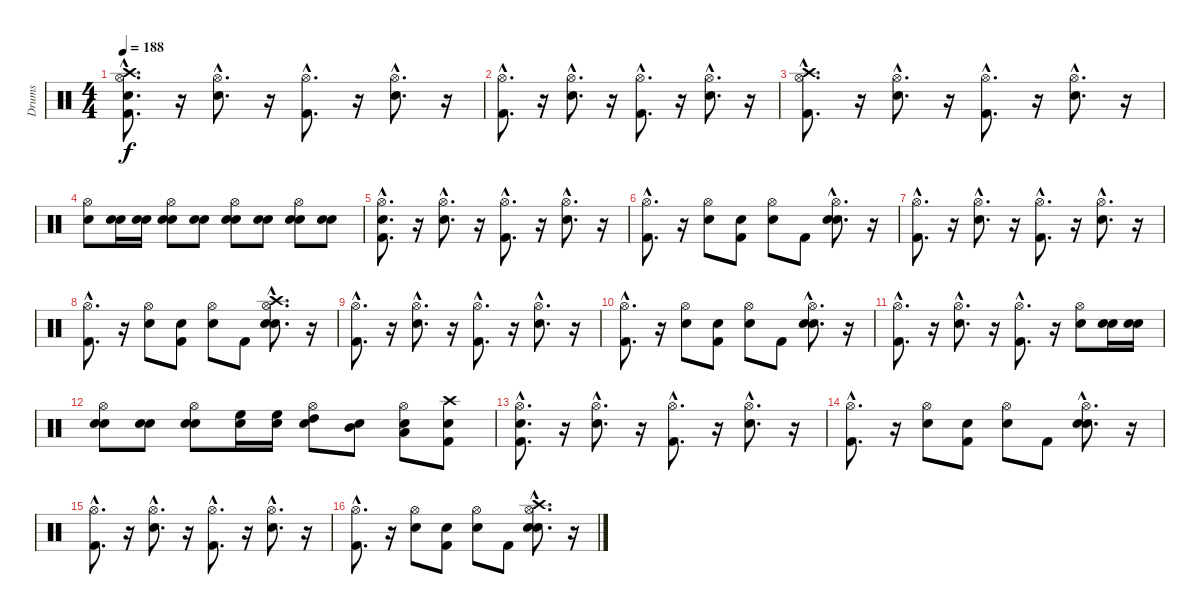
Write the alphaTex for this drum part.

\track ("Drums" "Drums") {instrument percussion}
\staff {score}
\articulation defaults
\ts (4 4)
\tempo 188
\clef neutral
\ks c
("Snare (hit)"{hac} "Kick (hit) 2"{hac} "Hi-Hat (open)"{hac} "Crash high (hit)"{hac}).8{d dy f} r.16 ("Snare (hit) 2"{hac} "Hi-Hat (open)"{hac}).8{d} r.16 ("Kick (hit) 2"{hac} "Hi-Hat (open)"{hac}).8{d} r.16 ("Snare (hit) 2"{hac} "Hi-Hat (open)"{hac}).8{d} r.16 |
("Kick (hit) 2"{hac} "Hi-Hat (open)"{hac}).8{d} r.16 ("Snare (hit) 2"{hac} "Hi-Hat (open)"{hac}).8{d} r.16 ("Kick (hit) 2"{hac} "Hi-Hat (open)"{hac}).8{d} r.16 ("Snare (hit) 2"{hac} "Hi-Hat (open)"{hac}).8{d} r.16 |
("Kick (hit) 2"{hac} "Hi-Hat (open)"{hac} "Crash high (hit)"{hac}).8{d} r.16 ("Snare (hit) 2"{hac} "Hi-Hat (open)"{hac}).8{d} r.16 ("Kick (hit) 2"{hac} "Hi-Hat (open)"{hac}).8{d} r.16 ("Snare (hit) 2"{hac} "Hi-Hat (open)"{hac}).8{d} r.16 |
("Snare (hit) 2" "Hi-Hat (open)").8 ("Snare (hit)" "Snare (hit) 2").16 ("Snare (hit)" "Snare (hit) 2").16 ("Snare (hit)" "Snare (hit) 2" "Hi-Hat (open)").8 ("Snare (hit)" "Snare (hit) 2").8 ("Snare (hit)" "Snare (hit) 2" "Hi-Hat (open)").8 ("Snare (hit)" "Snare (hit) 2").8 ("Snare (hit)" "Snare (hit) 2" "Hi-Hat (open)").8 ("Snare (hit)" "Snare (hit) 2").8 |
("Snare (hit)"{hac} "Kick (hit) 2"{hac} "Hi-Hat (open)"{hac}).8{d} r.16 ("Snare (hit) 2"{hac} "Hi-Hat (open)"{hac}).8{d} r.16 ("Kick (hit) 2"{hac} "Hi-Hat (open)"{hac}).8{d} r.16 ("Snare (hit) 2"{hac} "Hi-Hat (open)"{hac}).8{d} r.16 |
("Kick (hit) 2"{hac} "Hi-Hat (open)"{hac}).8{d} r.16 ("Snare (hit) 2" "Hi-Hat (open)").8 ("Snare (hit)" "Kick (hit) 2").8 ("Snare (hit)" "Hi-Hat (open)").8 "Kick (hit) 2".8 ("Snare (hit)"{hac} "Snare (hit) 2"{hac} "Hi-Hat (open)"{hac}).8{d} r.16 |
("Kick (hit) 2"{hac} "Hi-Hat (open)"{hac}).8{d} r.16 ("Snare (hit) 2"{hac} "Hi-Hat (open)"{hac}).8{d} r.16 ("Kick (hit) 2"{hac} "Hi-Hat (open)"{hac}).8{d} r.16 ("Snare (hit) 2"{hac} "Hi-Hat (open)"{hac}).8{d} r.16 |
("Kick (hit) 2"{hac} "Hi-Hat (open)"{hac}).8{d} r.16 ("Snare (hit) 2" "Hi-Hat (open)").8 ("Snare (hit)" "Kick (hit) 2").8 ("Snare (hit)" "Hi-Hat (open)").8 "Kick (hit) 2".8 ("Snare (hit)"{hac} "Snare (hit) 2"{hac} "Hi-Hat (open)"{hac} "Crash high (hit)"{hac}).8{d} r.16 |
("Kick (hit) 2"{hac} "Hi-Hat (open)"{hac}).8{d} r.16 ("Snare (hit) 2"{hac} "Hi-Hat (open)"{hac}).8{d} r.16 ("Kick (hit) 2"{hac} "Hi-Hat (open)"{hac}).8{d} r.16 ("Snare (hit) 2"{hac} "Hi-Hat (open)"{hac}).8{d} r.16 |
("Kick (hit) 2"{hac} "Hi-Hat (open)"{hac}).8{d} r.16 ("Snare (hit) 2" "Hi-Hat (open)").8 ("Snare (hit)" "Kick (hit) 2").8 ("Snare (hit)" "Hi-Hat (open)").8 "Kick (hit) 2".8 ("Snare (hit)"{hac} "Snare (hit) 2"{hac} "Hi-Hat (open)"{hac}).8{d} r.16 |
("Kick (hit) 2"{hac} "Hi-Hat (open)"{hac}).8{d} r.16 ("Snare (hit) 2"{hac} "Hi-Hat (open)"{hac}).8{d} r.16 ("Kick (hit) 2"{hac} "Hi-Hat (open)"{hac}).8{d} r.16 ("Snare (hit) 2" "Hi-Hat (open)").8 ("Snare (hit)" "Snare (hit) 2").16 ("Snare (hit)" "Snare (hit) 2").16 |
("Snare (hit)" "Snare (hit) 2" "Hi-Hat (open)").8 ("Snare (hit)" "Snare (hit) 2").8 ("Snare (hit)" "Snare (hit) 2" "Hi-Hat (open)").8 ("Snare (hit)" "High Floor Tom (hit)").16 ("Snare (hit)" "High Floor Tom (hit)").16 ("Snare (hit)" "Hi-Hat (open)" "High Tom (hit)").8 ("Snare (hit)" "Mid Tom (hit)").8 ("Snare (hit)" "Low Tom (hit)" "Hi-Hat (open)").8 ("Snare (hit)" "Kick (hit) 2" "Crash high (hit)").8 |
("Snare (hit)"{hac} "Kick (hit) 2"{hac} "Hi-Hat (open)"{hac}).8{d} r.16 ("Snare (hit) 2"{hac} "Hi-Hat (open)"{hac}).8{d} r.16 ("Kick (hit) 2"{hac} "Hi-Hat (open)"{hac}).8{d} r.16 ("Snare (hit) 2"{hac} "Hi-Hat (open)"{hac}).8{d} r.16 |
("Kick (hit) 2"{hac} "Hi-Hat (open)"{hac}).8{d} r.16 ("Snare (hit) 2" "Hi-Hat (open)").8 ("Snare (hit)" "Kick (hit) 2").8 ("Snare (hit)" "Hi-Hat (open)").8 "Kick (hit) 2".8 ("Snare (hit)"{hac} "Snare (hit) 2"{hac} "Hi-Hat (open)"{hac}).8{d} r.16 |
("Kick (hit) 2"{hac} "Hi-Hat (open)"{hac}).8{d} r.16 ("Snare (hit) 2"{hac} "Hi-Hat (open)"{hac}).8{d} r.16 ("Kick (hit) 2"{hac} "Hi-Hat (open)"{hac}).8{d} r.16 ("Snare (hit) 2"{hac} "Hi-Hat (open)"{hac}).8{d} r.16 |
("Kick (hit) 2"{hac} "Hi-Hat (open)"{hac}).8{d} r.16 ("Snare (hit) 2" "Hi-Hat (open)").8 ("Snare (hit)" "Kick (hit) 2").8 ("Snare (hit)" "Hi-Hat (open)").8 "Kick (hit) 2".8 ("Snare (hit)"{hac} "Snare (hit) 2"{hac} "Hi-Hat (open)"{hac} "Crash high (hit)"{hac}).8{d} r.16
